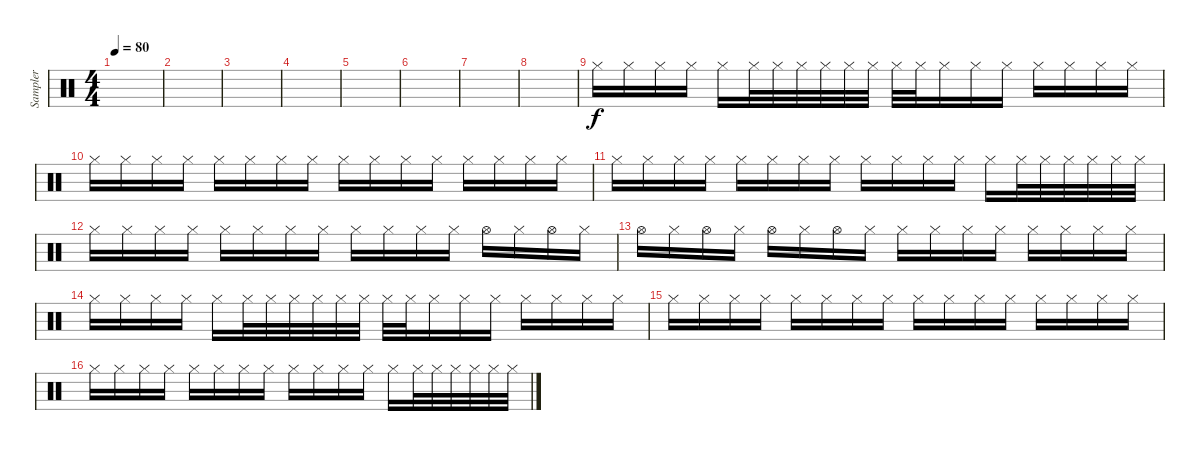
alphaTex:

\track ("Sampler" "Sampler") {instrument percussion}
\staff {score}
\articulation defaults
\ts (4 4)
\tempo 80
\clef neutral
\ks c
|
|
|
|
|
|
|
|
"Hi-Hat (closed)".16 "Hi-Hat (closed)".16 "Hi-Hat (closed)".16 "Hi-Hat (closed)".16 "Hi-Hat (closed)".16 "Hi-Hat (closed)".32 "Hi-Hat (closed)".32 "Hi-Hat (closed)".32 "Hi-Hat (closed)".32 "Hi-Hat (closed)".32 "Hi-Hat (closed)".32 "Hi-Hat (closed)".32 "Hi-Hat (closed)".32 "Hi-Hat (closed)".16 "Hi-Hat (closed)".16 "Hi-Hat (closed)".16 "Hi-Hat (closed)".16 "Hi-Hat (closed)".16 "Hi-Hat (closed)".16 "Hi-Hat (closed)".16 |
"Hi-Hat (closed)".16 "Hi-Hat (closed)".16 "Hi-Hat (closed)".16 "Hi-Hat (closed)".16 "Hi-Hat (closed)".16 "Hi-Hat (closed)".16 "Hi-Hat (closed)".16 "Hi-Hat (closed)".16 "Hi-Hat (closed)".16 "Hi-Hat (closed)".16 "Hi-Hat (closed)".16 "Hi-Hat (closed)".16 "Hi-Hat (closed)".16 "Hi-Hat (closed)".16 "Hi-Hat (closed)".16 "Hi-Hat (closed)".16 |
"Hi-Hat (closed)".16 "Hi-Hat (closed)".16 "Hi-Hat (closed)".16 "Hi-Hat (closed)".16 "Hi-Hat (closed)".16 "Hi-Hat (closed)".16 "Hi-Hat (closed)".16 "Hi-Hat (closed)".16 "Hi-Hat (closed)".16 "Hi-Hat (closed)".16 "Hi-Hat (closed)".16 "Hi-Hat (closed)".16 "Hi-Hat (closed)".16 "Hi-Hat (closed)".32 "Hi-Hat (closed)".32 "Hi-Hat (closed)".32 "Hi-Hat (closed)".32 "Hi-Hat (closed)".32 "Hi-Hat (closed)".32 |
"Hi-Hat (closed)".16 "Hi-Hat (closed)".16 "Hi-Hat (closed)".16 "Hi-Hat (closed)".16 "Hi-Hat (closed)".16 "Hi-Hat (closed)".16 "Hi-Hat (closed)".16 "Hi-Hat (closed)".16 "Hi-Hat (closed)".16 "Hi-Hat (closed)".16 "Hi-Hat (closed)".16 "Hi-Hat (closed)".16 "Hi-Hat (open)".16 "Hi-Hat (closed)".16 "Hi-Hat (open)".16 "Hi-Hat (closed)".16 |
"Hi-Hat (open)".16 "Hi-Hat (closed)".16 "Hi-Hat (open)".16 "Hi-Hat (closed)".16 "Hi-Hat (open)".16 "Hi-Hat (closed)".16 "Hi-Hat (open)".16 "Hi-Hat (closed)".16 "Hi-Hat (closed)".16 "Hi-Hat (closed)".16 "Hi-Hat (closed)".16 "Hi-Hat (closed)".16 "Hi-Hat (closed)".16 "Hi-Hat (closed)".16 "Hi-Hat (closed)".16 "Hi-Hat (closed)".16 |
"Hi-Hat (closed)".16 "Hi-Hat (closed)".16 "Hi-Hat (closed)".16 "Hi-Hat (closed)".16 "Hi-Hat (closed)".16 "Hi-Hat (closed)".32 "Hi-Hat (closed)".32 "Hi-Hat (closed)".32 "Hi-Hat (closed)".32 "Hi-Hat (closed)".32 "Hi-Hat (closed)".32 "Hi-Hat (closed)".32 "Hi-Hat (closed)".32 "Hi-Hat (closed)".16 "Hi-Hat (closed)".16 "Hi-Hat (closed)".16 "Hi-Hat (closed)".16 "Hi-Hat (closed)".16 "Hi-Hat (closed)".16 "Hi-Hat (closed)".16 |
"Hi-Hat (closed)".16 "Hi-Hat (closed)".16 "Hi-Hat (closed)".16 "Hi-Hat (closed)".16 "Hi-Hat (closed)".16 "Hi-Hat (closed)".16 "Hi-Hat (closed)".16 "Hi-Hat (closed)".16 "Hi-Hat (closed)".16 "Hi-Hat (closed)".16 "Hi-Hat (closed)".16 "Hi-Hat (closed)".16 "Hi-Hat (closed)".16 "Hi-Hat (closed)".16 "Hi-Hat (closed)".16 "Hi-Hat (closed)".16 |
"Hi-Hat (closed)".16 "Hi-Hat (closed)".16 "Hi-Hat (closed)".16 "Hi-Hat (closed)".16 "Hi-Hat (closed)".16 "Hi-Hat (closed)".16 "Hi-Hat (closed)".16 "Hi-Hat (closed)".16 "Hi-Hat (closed)".16 "Hi-Hat (closed)".16 "Hi-Hat (closed)".16 "Hi-Hat (closed)".16 "Hi-Hat (closed)".16 "Hi-Hat (closed)".32 "Hi-Hat (closed)".32 "Hi-Hat (closed)".32 "Hi-Hat (closed)".32 "Hi-Hat (closed)".32 "Hi-Hat (closed)".32
